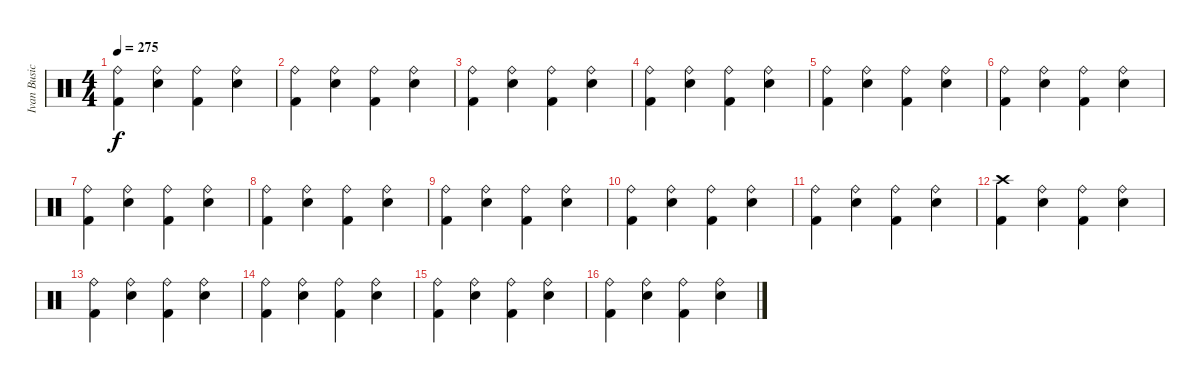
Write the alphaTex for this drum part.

\track ("Ivan Busic" "Ivan Busic") {instrument percussion}
\staff {score}
\articulation defaults
\ts (4 4)
\tempo 275
\clef neutral
\ks c
("Ride (bell)" "Kick (hit) 2").4{dy f} ("Ride (bell)" "Electric Snare (hit)").4 ("Ride (bell)" "Kick (hit) 2").4 ("Ride (bell)" "Electric Snare (hit)").4 |
("Ride (bell)" "Kick (hit) 2").4 ("Ride (bell)" "Electric Snare (hit)").4 ("Ride (bell)" "Kick (hit) 2").4 ("Ride (bell)" "Electric Snare (hit)").4 |
("Ride (bell)" "Kick (hit) 2").4 ("Ride (bell)" "Electric Snare (hit)").4 ("Ride (bell)" "Kick (hit) 2").4 ("Ride (bell)" "Electric Snare (hit)").4 |
("Ride (bell)" "Kick (hit) 2").4 ("Ride (bell)" "Electric Snare (hit)").4 ("Ride (bell)" "Kick (hit) 2").4 ("Ride (bell)" "Electric Snare (hit)").4 |
("Ride (bell)" "Kick (hit) 2").4 ("Ride (bell)" "Electric Snare (hit)").4 ("Ride (bell)" "Kick (hit) 2").4 ("Ride (bell)" "Electric Snare (hit)").4 |
("Ride (bell)" "Kick (hit) 2").4 ("Ride (bell)" "Electric Snare (hit)").4 ("Ride (bell)" "Kick (hit) 2").4 ("Ride (bell)" "Electric Snare (hit)").4 |
("Ride (bell)" "Kick (hit) 2").4 ("Ride (bell)" "Electric Snare (hit)").4 ("Ride (bell)" "Kick (hit) 2").4 ("Ride (bell)" "Electric Snare (hit)").4 |
("Ride (bell)" "Kick (hit) 2").4 ("Ride (bell)" "Electric Snare (hit)").4 ("Ride (bell)" "Kick (hit) 2").4 ("Ride (bell)" "Electric Snare (hit)").4 |
("Ride (bell)" "Kick (hit) 2").4 ("Ride (bell)" "Electric Snare (hit)").4 ("Ride (bell)" "Kick (hit) 2").4 ("Ride (bell)" "Electric Snare (hit)").4 |
("Ride (bell)" "Kick (hit) 2").4 ("Ride (bell)" "Electric Snare (hit)").4 ("Ride (bell)" "Kick (hit) 2").4 ("Ride (bell)" "Electric Snare (hit)").4 |
("Ride (bell)" "Kick (hit) 2").4 ("Ride (bell)" "Electric Snare (hit)").4 ("Ride (bell)" "Kick (hit) 2").4 ("Ride (bell)" "Electric Snare (hit)").4 |
("Crash high (hit)" "Kick (hit) 2").4 ("Ride (bell)" "Electric Snare (hit)").4 ("Ride (bell)" "Kick (hit) 2").4 ("Ride (bell)" "Electric Snare (hit)").4 |
("Ride (bell)" "Kick (hit) 2").4 ("Ride (bell)" "Electric Snare (hit)").4 ("Ride (bell)" "Kick (hit) 2").4 ("Ride (bell)" "Electric Snare (hit)").4 |
("Ride (bell)" "Kick (hit) 2").4 ("Ride (bell)" "Electric Snare (hit)").4 ("Ride (bell)" "Kick (hit) 2").4 ("Ride (bell)" "Electric Snare (hit)").4 |
("Ride (bell)" "Kick (hit) 2").4 ("Ride (bell)" "Electric Snare (hit)").4 ("Ride (bell)" "Kick (hit) 2").4 ("Ride (bell)" "Electric Snare (hit)").4 |
("Ride (bell)" "Kick (hit) 2").4 ("Ride (bell)" "Electric Snare (hit)").4 ("Ride (bell)" "Kick (hit) 2").4 ("Ride (bell)" "Electric Snare (hit)").4
